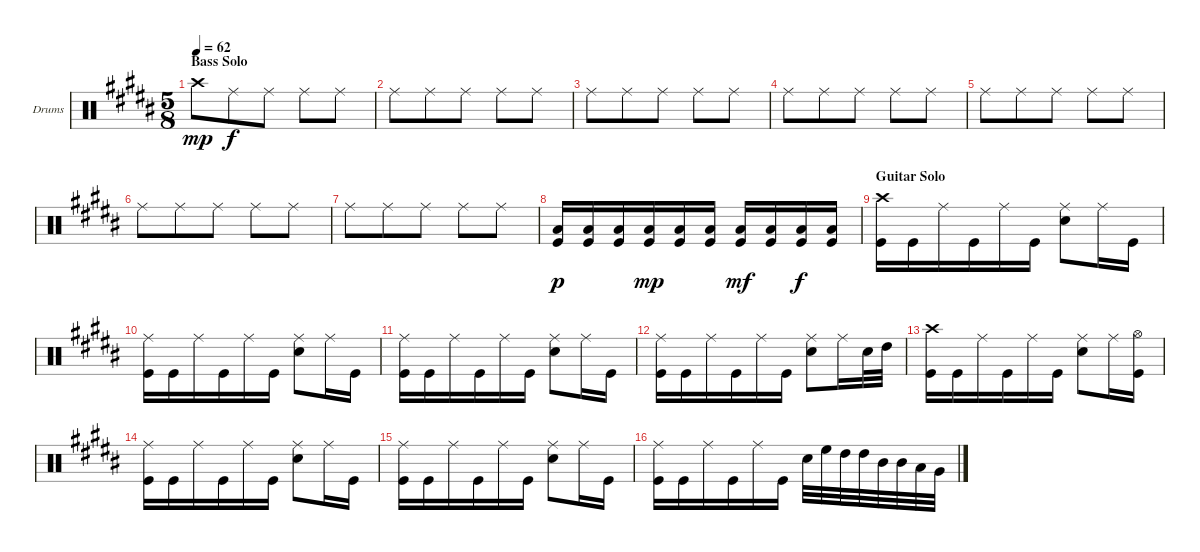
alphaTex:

\defaultSystemsLayout 4
\bracketExtendMode groupsimilarinstruments
\firstSystemTrackNameOrientation horizontal
\otherSystemsTrackNameOrientation horizontal
\track ("Drums" "Drums") {instrument percussion}
\staff {score}
\articulation defaults
\ts (5 8)
\section ("" "Bass Solo")
\tempo 62
\clef neutral
\ks g#minor "Crash high (hit)".8{dy mp} "Ride (middle)".8{dy f} "Ride (middle)".8 "Ride (middle)".8 "Ride (middle)".8
|
"Ride (middle)".8 "Ride (middle)".8 "Ride (middle)".8 "Ride (middle)".8 "Ride (middle)".8 |
"Ride (middle)".8 "Ride (middle)".8 "Ride (middle)".8 "Ride (middle)".8 "Ride (middle)".8 |
"Ride (middle)".8 "Ride (middle)".8 "Ride (middle)".8 "Ride (middle)".8 "Ride (middle)".8 |
"Ride (middle)".8 "Ride (middle)".8 "Ride (middle)".8 "Ride (middle)".8 "Ride (middle)".8 |
"Ride (middle)".8 "Ride (middle)".8 "Ride (middle)".8 "Ride (middle)".8 "Ride (middle)".8 |
"Ride (middle)".8 "Ride (middle)".8 "Ride (middle)".8 "Ride (middle)".8 "Ride (middle)".8 |
("Kick (hit)" "Low Tom (hit)").16{dy p} ("Kick (hit)" "Low Tom (hit)").16 ("Kick (hit)" "Low Tom (hit)").16 ("Kick (hit)" "Low Tom (hit)").16{dy mp} ("Kick (hit)" "Low Tom (hit)").16 ("Kick (hit)" "Low Tom (hit)").16 ("Kick (hit)" "Low Tom (hit)").16{dy mf} ("Kick (hit)" "Low Tom (hit)").16 ("Kick (hit)" "Low Tom (hit)").16{dy f} ("Kick (hit)" "Low Tom (hit)").16 |
\section ("" "Guitar Solo")
("Kick (hit)" "Crash high (hit)").16 "Kick (hit)".16 "Ride (middle)".16 "Kick (hit)".16 "Ride (middle)".16 "Kick (hit)".16 ("Snare (hit) 2" "Ride (middle)").8 "Ride (middle)".16 "Kick (hit)".16 |
("Kick (hit)" "Ride (middle)").16 "Kick (hit)".16 "Ride (middle)".16 "Kick (hit)".16 "Ride (middle)".16 "Kick (hit)".16 ("Snare (hit) 2" "Ride (middle)").8 "Ride (middle)".16 "Kick (hit)".16 |
("Kick (hit)" "Ride (middle)").16 "Kick (hit)".16 "Ride (middle)".16 "Kick (hit)".16 "Ride (middle)".16 "Kick (hit)".16 ("Snare (hit) 2" "Ride (middle)").8 "Ride (middle)".16 "Kick (hit)".16 |
("Kick (hit)" "Ride (middle)").16 "Kick (hit)".16 "Ride (middle)".16 "Kick (hit)".16 "Ride (middle)".16 "Kick (hit)".16 ("Snare (hit) 2" "Ride (middle)").8 "Ride (middle)".16 "Snare (hit) 2".32 "High Tom (hit)".32 |
("Kick (hit)" "Crash high (hit)").16 "Kick (hit)".16 "Ride (middle)".16 "Kick (hit)".16 "Ride (middle)".16 "Kick (hit)".16 ("Snare (hit) 2" "Ride (middle)").8 "Ride (middle)".16 ("Kick (hit)" "Hi-Hat (open)").16 |
("Kick (hit)" "Ride (middle)").16 "Kick (hit)".16 "Ride (middle)".16 "Kick (hit)".16 "Ride (middle)".16 "Kick (hit)".16 ("Snare (hit) 2" "Ride (middle)").8 "Ride (middle)".16 "Kick (hit)".16 |
("Kick (hit)" "Ride (middle)").16 "Kick (hit)".16 "Ride (middle)".16 "Kick (hit)".16 "Ride (middle)".16 "Kick (hit)".16 ("Snare (hit) 2" "Ride (middle)").8 "Ride (middle)".16 "Kick (hit)".16 |
("Kick (hit)" "Ride (middle)").16 "Kick (hit)".16 "Ride (middle)".16 "Kick (hit)".16 "Ride (middle)".16 "Kick (hit)".16 "Snare (hit) 2".32 "High Floor Tom (hit)".32 "High Tom (hit)".32 "High Tom (hit)".32 "Mid Tom (hit)".32 "Mid Tom (hit)".32 "Low Tom (hit)".32 "Very Low Tom (hit)".32
